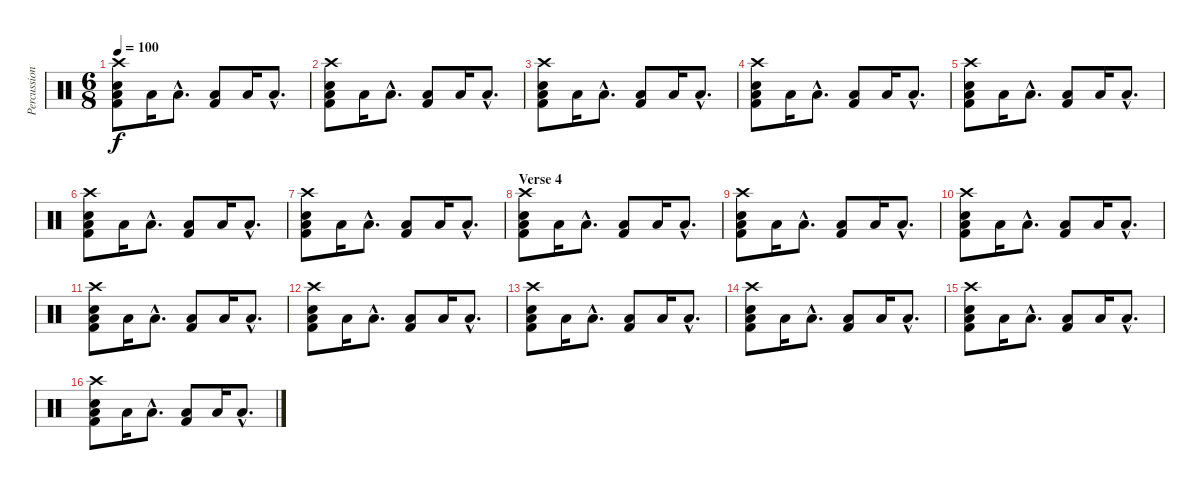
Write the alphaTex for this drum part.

\track ("Percussion" "Percussion") {instrument percussion}
\staff {score}
\articulation defaults
\ts (6 8)
\tempo 100
\clef neutral
\ks c
("Crash high (hit)" "Electric Snare (hit)" "Low Floor Tom (hit)" "Kick (hit) 2").8{dy f} "Low Floor Tom (hit)".16 "Low Floor Tom (hit)"{hac}.8{d} ("Low Floor Tom (hit)" "Kick (hit) 2").8 "Low Floor Tom (hit)".16 "Low Floor Tom (hit)"{hac}.8{d} |
("Crash high (hit)" "Electric Snare (hit)" "Low Floor Tom (hit)" "Kick (hit) 2").8 "Low Floor Tom (hit)".16 "Low Floor Tom (hit)"{hac}.8{d} ("Low Floor Tom (hit)" "Kick (hit) 2").8 "Low Floor Tom (hit)".16 "Low Floor Tom (hit)"{hac}.8{d} |
("Crash high (hit)" "Electric Snare (hit)" "Low Floor Tom (hit)" "Kick (hit) 2").8 "Low Floor Tom (hit)".16 "Low Floor Tom (hit)"{hac}.8{d} ("Low Floor Tom (hit)" "Kick (hit) 2").8 "Low Floor Tom (hit)".16 "Low Floor Tom (hit)"{hac}.8{d} |
("Crash high (hit)" "Electric Snare (hit)" "Low Floor Tom (hit)" "Kick (hit) 2").8 "Low Floor Tom (hit)".16 "Low Floor Tom (hit)"{hac}.8{d} ("Low Floor Tom (hit)" "Kick (hit) 2").8 "Low Floor Tom (hit)".16 "Low Floor Tom (hit)"{hac}.8{d} |
("Crash high (hit)" "Electric Snare (hit)" "Low Floor Tom (hit)" "Kick (hit) 2").8 "Low Floor Tom (hit)".16 "Low Floor Tom (hit)"{hac}.8{d} ("Low Floor Tom (hit)" "Kick (hit) 2").8 "Low Floor Tom (hit)".16 "Low Floor Tom (hit)"{hac}.8{d} |
("Crash high (hit)" "Electric Snare (hit)" "Low Floor Tom (hit)" "Kick (hit) 2").8 "Low Floor Tom (hit)".16 "Low Floor Tom (hit)"{hac}.8{d} ("Low Floor Tom (hit)" "Kick (hit) 2").8 "Low Floor Tom (hit)".16 "Low Floor Tom (hit)"{hac}.8{d} |
("Crash high (hit)" "Electric Snare (hit)" "Low Floor Tom (hit)" "Kick (hit) 2").8 "Low Floor Tom (hit)".16 "Low Floor Tom (hit)"{hac}.8{d} ("Low Floor Tom (hit)" "Kick (hit) 2").8 "Low Floor Tom (hit)".16 "Low Floor Tom (hit)"{hac}.8{d} |
\section ("" "Verse 4")
("Crash high (hit)" "Electric Snare (hit)" "Low Floor Tom (hit)" "Kick (hit) 2").8 "Low Floor Tom (hit)".16 "Low Floor Tom (hit)"{hac}.8{d} ("Low Floor Tom (hit)" "Kick (hit) 2").8 "Low Floor Tom (hit)".16 "Low Floor Tom (hit)"{hac}.8{d} |
("Crash high (hit)" "Electric Snare (hit)" "Low Floor Tom (hit)" "Kick (hit) 2").8 "Low Floor Tom (hit)".16 "Low Floor Tom (hit)"{hac}.8{d} ("Low Floor Tom (hit)" "Kick (hit) 2").8 "Low Floor Tom (hit)".16 "Low Floor Tom (hit)"{hac}.8{d} |
("Crash high (hit)" "Electric Snare (hit)" "Low Floor Tom (hit)" "Kick (hit) 2").8 "Low Floor Tom (hit)".16 "Low Floor Tom (hit)"{hac}.8{d} ("Low Floor Tom (hit)" "Kick (hit) 2").8 "Low Floor Tom (hit)".16 "Low Floor Tom (hit)"{hac}.8{d} |
("Crash high (hit)" "Electric Snare (hit)" "Low Floor Tom (hit)" "Kick (hit) 2").8 "Low Floor Tom (hit)".16 "Low Floor Tom (hit)"{hac}.8{d} ("Low Floor Tom (hit)" "Kick (hit) 2").8 "Low Floor Tom (hit)".16 "Low Floor Tom (hit)"{hac}.8{d} |
("Crash high (hit)" "Electric Snare (hit)" "Low Floor Tom (hit)" "Kick (hit) 2").8 "Low Floor Tom (hit)".16 "Low Floor Tom (hit)"{hac}.8{d} ("Low Floor Tom (hit)" "Kick (hit) 2").8 "Low Floor Tom (hit)".16 "Low Floor Tom (hit)"{hac}.8{d} |
("Crash high (hit)" "Electric Snare (hit)" "Low Floor Tom (hit)" "Kick (hit) 2").8 "Low Floor Tom (hit)".16 "Low Floor Tom (hit)"{hac}.8{d} ("Low Floor Tom (hit)" "Kick (hit) 2").8 "Low Floor Tom (hit)".16 "Low Floor Tom (hit)"{hac}.8{d} |
("Crash high (hit)" "Electric Snare (hit)" "Low Floor Tom (hit)" "Kick (hit) 2").8 "Low Floor Tom (hit)".16 "Low Floor Tom (hit)"{hac}.8{d} ("Low Floor Tom (hit)" "Kick (hit) 2").8 "Low Floor Tom (hit)".16 "Low Floor Tom (hit)"{hac}.8{d} |
("Crash high (hit)" "Electric Snare (hit)" "Low Floor Tom (hit)" "Kick (hit) 2").8 "Low Floor Tom (hit)".16 "Low Floor Tom (hit)"{hac}.8{d} ("Low Floor Tom (hit)" "Kick (hit) 2").8 "Low Floor Tom (hit)".16 "Low Floor Tom (hit)"{hac}.8{d} |
("Crash high (hit)" "Electric Snare (hit)" "Low Floor Tom (hit)" "Kick (hit) 2").8 "Low Floor Tom (hit)".16 "Low Floor Tom (hit)"{hac}.8{d} ("Low Floor Tom (hit)" "Kick (hit) 2").8 "Low Floor Tom (hit)".16 "Low Floor Tom (hit)"{hac}.8{d}
